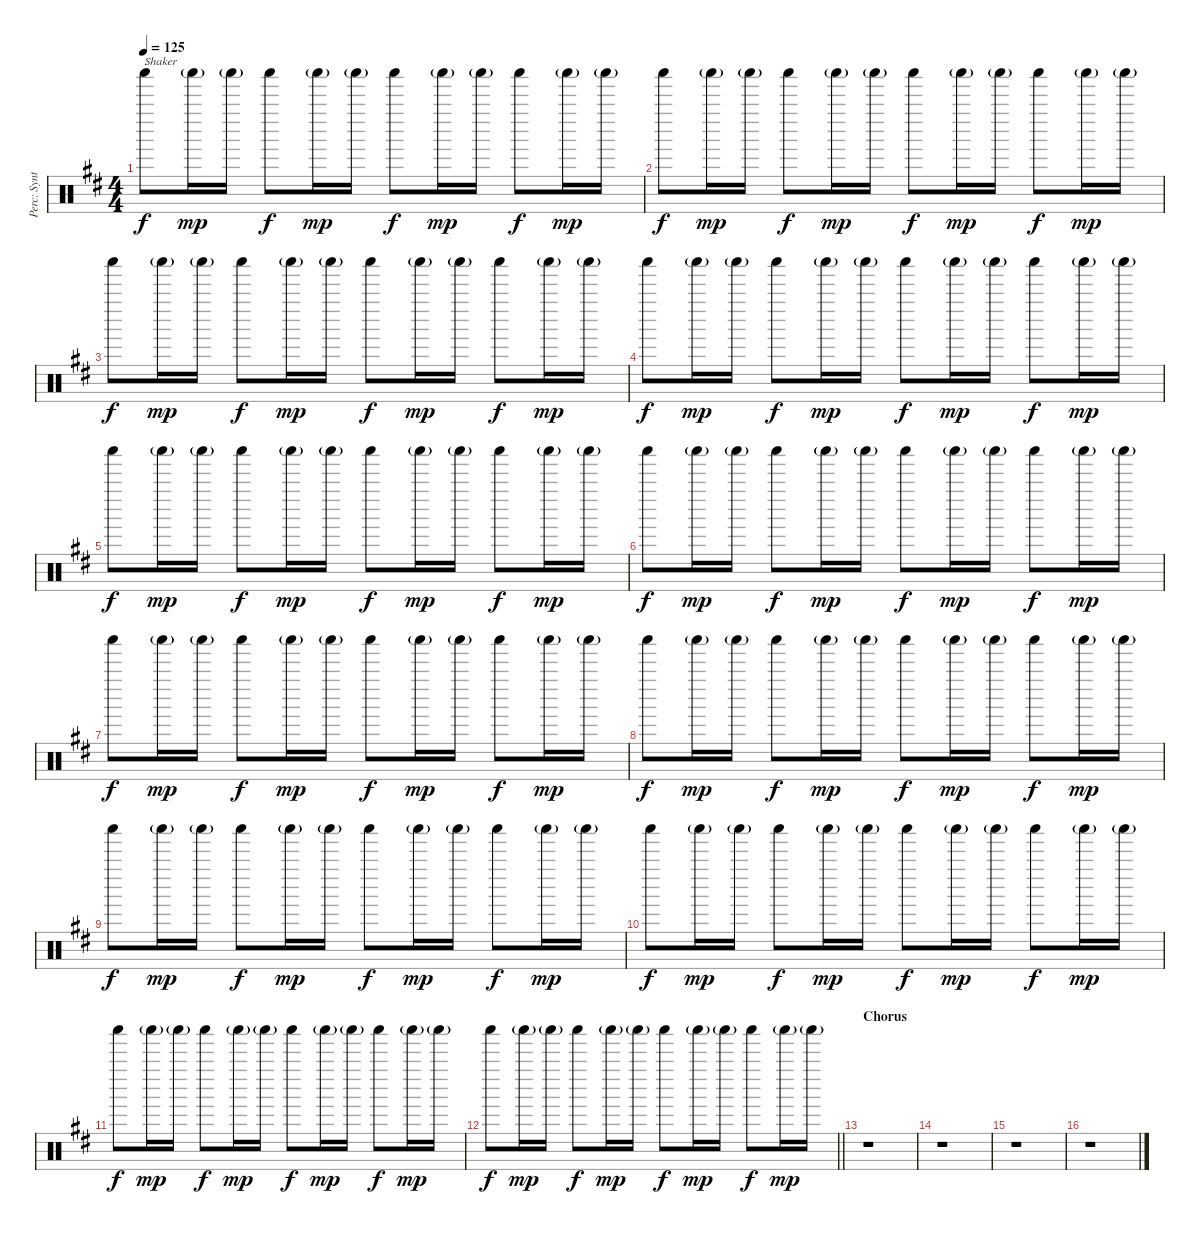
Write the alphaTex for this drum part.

\track ("Perc: Synth + Shaker + Timbales" "Perc: Synt") {instrument percussion}
\staff {score}
\articulation defaults
\ts (4 4)
\tempo 125
\clef neutral
\ks bminor "Shaker (hit)".8{txt "Shaker" dy f} "Shaker (hit)"{g}.16{dy mp} "Shaker (hit)"{g}.16 "Shaker (hit)".8{dy f} "Shaker (hit)"{g}.16{dy mp} "Shaker (hit)"{g}.16 "Shaker (hit)".8{dy f} "Shaker (hit)"{g}.16{dy mp} "Shaker (hit)"{g}.16 "Shaker (hit)".8{dy f} "Shaker (hit)"{g}.16{dy mp} "Shaker (hit)"{g}.16
|
"Shaker (hit)".8{dy f} "Shaker (hit)"{g}.16{dy mp} "Shaker (hit)"{g}.16 "Shaker (hit)".8{dy f} "Shaker (hit)"{g}.16{dy mp} "Shaker (hit)"{g}.16 "Shaker (hit)".8{dy f} "Shaker (hit)"{g}.16{dy mp} "Shaker (hit)"{g}.16 "Shaker (hit)".8{dy f} "Shaker (hit)"{g}.16{dy mp} "Shaker (hit)"{g}.16 |
"Shaker (hit)".8{dy f} "Shaker (hit)"{g}.16{dy mp} "Shaker (hit)"{g}.16 "Shaker (hit)".8{dy f} "Shaker (hit)"{g}.16{dy mp} "Shaker (hit)"{g}.16 "Shaker (hit)".8{dy f} "Shaker (hit)"{g}.16{dy mp} "Shaker (hit)"{g}.16 "Shaker (hit)".8{dy f} "Shaker (hit)"{g}.16{dy mp} "Shaker (hit)"{g}.16 |
"Shaker (hit)".8{dy f} "Shaker (hit)"{g}.16{dy mp} "Shaker (hit)"{g}.16 "Shaker (hit)".8{dy f} "Shaker (hit)"{g}.16{dy mp} "Shaker (hit)"{g}.16 "Shaker (hit)".8{dy f} "Shaker (hit)"{g}.16{dy mp} "Shaker (hit)"{g}.16 "Shaker (hit)".8{dy f} "Shaker (hit)"{g}.16{dy mp} "Shaker (hit)"{g}.16 |
"Shaker (hit)".8{dy f} "Shaker (hit)"{g}.16{dy mp} "Shaker (hit)"{g}.16 "Shaker (hit)".8{dy f} "Shaker (hit)"{g}.16{dy mp} "Shaker (hit)"{g}.16 "Shaker (hit)".8{dy f} "Shaker (hit)"{g}.16{dy mp} "Shaker (hit)"{g}.16 "Shaker (hit)".8{dy f} "Shaker (hit)"{g}.16{dy mp} "Shaker (hit)"{g}.16 |
"Shaker (hit)".8{dy f} "Shaker (hit)"{g}.16{dy mp} "Shaker (hit)"{g}.16 "Shaker (hit)".8{dy f} "Shaker (hit)"{g}.16{dy mp} "Shaker (hit)"{g}.16 "Shaker (hit)".8{dy f} "Shaker (hit)"{g}.16{dy mp} "Shaker (hit)"{g}.16 "Shaker (hit)".8{dy f} "Shaker (hit)"{g}.16{dy mp} "Shaker (hit)"{g}.16 |
"Shaker (hit)".8{dy f} "Shaker (hit)"{g}.16{dy mp} "Shaker (hit)"{g}.16 "Shaker (hit)".8{dy f} "Shaker (hit)"{g}.16{dy mp} "Shaker (hit)"{g}.16 "Shaker (hit)".8{dy f} "Shaker (hit)"{g}.16{dy mp} "Shaker (hit)"{g}.16 "Shaker (hit)".8{dy f} "Shaker (hit)"{g}.16{dy mp} "Shaker (hit)"{g}.16 |
"Shaker (hit)".8{dy f} "Shaker (hit)"{g}.16{dy mp} "Shaker (hit)"{g}.16 "Shaker (hit)".8{dy f} "Shaker (hit)"{g}.16{dy mp} "Shaker (hit)"{g}.16 "Shaker (hit)".8{dy f} "Shaker (hit)"{g}.16{dy mp} "Shaker (hit)"{g}.16 "Shaker (hit)".8{dy f} "Shaker (hit)"{g}.16{dy mp} "Shaker (hit)"{g}.16 |
"Shaker (hit)".8{dy f} "Shaker (hit)"{g}.16{dy mp} "Shaker (hit)"{g}.16 "Shaker (hit)".8{dy f} "Shaker (hit)"{g}.16{dy mp} "Shaker (hit)"{g}.16 "Shaker (hit)".8{dy f} "Shaker (hit)"{g}.16{dy mp} "Shaker (hit)"{g}.16 "Shaker (hit)".8{dy f} "Shaker (hit)"{g}.16{dy mp} "Shaker (hit)"{g}.16 |
"Shaker (hit)".8{dy f} "Shaker (hit)"{g}.16{dy mp} "Shaker (hit)"{g}.16 "Shaker (hit)".8{dy f} "Shaker (hit)"{g}.16{dy mp} "Shaker (hit)"{g}.16 "Shaker (hit)".8{dy f} "Shaker (hit)"{g}.16{dy mp} "Shaker (hit)"{g}.16 "Shaker (hit)".8{dy f} "Shaker (hit)"{g}.16{dy mp} "Shaker (hit)"{g}.16 |
"Shaker (hit)".8{dy f} "Shaker (hit)"{g}.16{dy mp} "Shaker (hit)"{g}.16 "Shaker (hit)".8{dy f} "Shaker (hit)"{g}.16{dy mp} "Shaker (hit)"{g}.16 "Shaker (hit)".8{dy f} "Shaker (hit)"{g}.16{dy mp} "Shaker (hit)"{g}.16 "Shaker (hit)".8{dy f} "Shaker (hit)"{g}.16{dy mp} "Shaker (hit)"{g}.16 |
\barLineRight lightlight "Shaker (hit)".8{dy f} "Shaker (hit)"{g}.16{dy mp} "Shaker (hit)"{g}.16 "Shaker (hit)".8{dy f} "Shaker (hit)"{g}.16{dy mp} "Shaker (hit)"{g}.16 "Shaker (hit)".8{dy f} "Shaker (hit)"{g}.16{dy mp} "Shaker (hit)"{g}.16 "Shaker (hit)".8{dy f} "Shaker (hit)"{g}.16{dy mp} "Shaker (hit)"{g}.16
|
\section ("" "Chorus")
r.1 |
r.1 |
r.1 |
r.1
